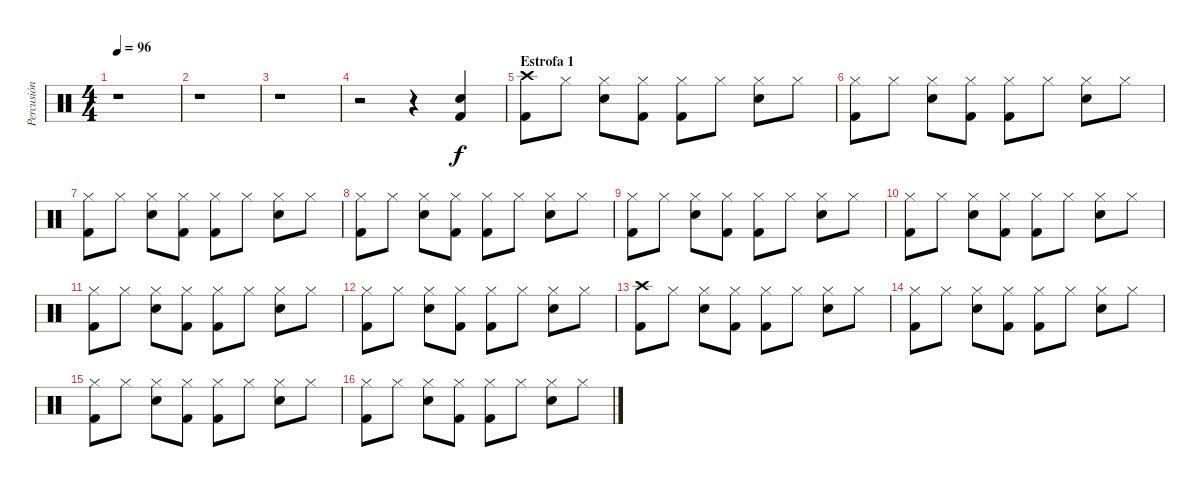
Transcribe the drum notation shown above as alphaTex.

\track ("Percusión" "Percusión") {instrument percussion}
\staff {score}
\articulation defaults
\ts (4 4)
\tempo 96
\clef neutral
\ks c
r.1{dy f} |
r.1 |
r.1 |
r.2 r.4 ("Snare (hit) 2" "Kick (hit) 2").4 |
\section ("" "Estrofa 1")
("Kick (hit) 2" "Crash high (hit)").8 "Hi-Hat (closed)".8 ("Snare (hit) 2" "Hi-Hat (closed)").8 ("Kick (hit) 2" "Hi-Hat (closed)").8 ("Kick (hit) 2" "Hi-Hat (closed)").8 "Hi-Hat (closed)".8 ("Snare (hit) 2" "Hi-Hat (closed)").8 "Hi-Hat (closed)".8 |
("Kick (hit) 2" "Hi-Hat (closed)").8 "Hi-Hat (closed)".8 ("Snare (hit) 2" "Hi-Hat (closed)").8 ("Kick (hit) 2" "Hi-Hat (closed)").8 ("Kick (hit) 2" "Hi-Hat (closed)").8 "Hi-Hat (closed)".8 ("Snare (hit) 2" "Hi-Hat (closed)").8 "Hi-Hat (closed)".8 |
("Kick (hit) 2" "Hi-Hat (closed)").8 "Hi-Hat (closed)".8 ("Snare (hit) 2" "Hi-Hat (closed)").8 ("Kick (hit) 2" "Hi-Hat (closed)").8 ("Kick (hit) 2" "Hi-Hat (closed)").8 "Hi-Hat (closed)".8 ("Snare (hit) 2" "Hi-Hat (closed)").8 "Hi-Hat (closed)".8 |
("Kick (hit) 2" "Hi-Hat (closed)").8 "Hi-Hat (closed)".8 ("Snare (hit) 2" "Hi-Hat (closed)").8 ("Kick (hit) 2" "Hi-Hat (closed)").8 ("Kick (hit) 2" "Hi-Hat (closed)").8 "Hi-Hat (closed)".8 ("Snare (hit) 2" "Hi-Hat (closed)").8 "Hi-Hat (closed)".8 |
("Kick (hit) 2" "Hi-Hat (closed)").8 "Hi-Hat (closed)".8 ("Snare (hit) 2" "Hi-Hat (closed)").8 ("Kick (hit) 2" "Hi-Hat (closed)").8 ("Kick (hit) 2" "Hi-Hat (closed)").8 "Hi-Hat (closed)".8 ("Snare (hit) 2" "Hi-Hat (closed)").8 "Hi-Hat (closed)".8 |
("Kick (hit) 2" "Hi-Hat (closed)").8 "Hi-Hat (closed)".8 ("Snare (hit) 2" "Hi-Hat (closed)").8 ("Kick (hit) 2" "Hi-Hat (closed)").8 ("Kick (hit) 2" "Hi-Hat (closed)").8 "Hi-Hat (closed)".8 ("Snare (hit) 2" "Hi-Hat (closed)").8 "Hi-Hat (closed)".8 |
("Kick (hit) 2" "Hi-Hat (closed)").8 "Hi-Hat (closed)".8 ("Snare (hit) 2" "Hi-Hat (closed)").8 ("Kick (hit) 2" "Hi-Hat (closed)").8 ("Kick (hit) 2" "Hi-Hat (closed)").8 "Hi-Hat (closed)".8 ("Snare (hit) 2" "Hi-Hat (closed)").8 "Hi-Hat (closed)".8 |
("Kick (hit) 2" "Hi-Hat (closed)").8 "Hi-Hat (closed)".8 ("Snare (hit) 2" "Hi-Hat (closed)").8 ("Kick (hit) 2" "Hi-Hat (closed)").8 ("Kick (hit) 2" "Hi-Hat (closed)").8 "Hi-Hat (closed)".8 ("Snare (hit) 2" "Hi-Hat (closed)").8 "Hi-Hat (closed)".8 |
("Kick (hit) 2" "Crash high (hit)").8 "Hi-Hat (closed)".8 ("Snare (hit) 2" "Hi-Hat (closed)").8 ("Kick (hit) 2" "Hi-Hat (closed)").8 ("Kick (hit) 2" "Hi-Hat (closed)").8 "Hi-Hat (closed)".8 ("Snare (hit) 2" "Hi-Hat (closed)").8 "Hi-Hat (closed)".8 |
("Kick (hit) 2" "Hi-Hat (closed)").8 "Hi-Hat (closed)".8 ("Snare (hit) 2" "Hi-Hat (closed)").8 ("Kick (hit) 2" "Hi-Hat (closed)").8 ("Kick (hit) 2" "Hi-Hat (closed)").8 "Hi-Hat (closed)".8 ("Snare (hit) 2" "Hi-Hat (closed)").8 "Hi-Hat (closed)".8 |
("Kick (hit) 2" "Hi-Hat (closed)").8 "Hi-Hat (closed)".8 ("Snare (hit) 2" "Hi-Hat (closed)").8 ("Kick (hit) 2" "Hi-Hat (closed)").8 ("Kick (hit) 2" "Hi-Hat (closed)").8 "Hi-Hat (closed)".8 ("Snare (hit) 2" "Hi-Hat (closed)").8 "Hi-Hat (closed)".8 |
("Kick (hit) 2" "Hi-Hat (closed)").8 "Hi-Hat (closed)".8 ("Snare (hit) 2" "Hi-Hat (closed)").8 ("Kick (hit) 2" "Hi-Hat (closed)").8 ("Kick (hit) 2" "Hi-Hat (closed)").8 "Hi-Hat (closed)".8 ("Snare (hit) 2" "Hi-Hat (closed)").8 "Hi-Hat (closed)".8
